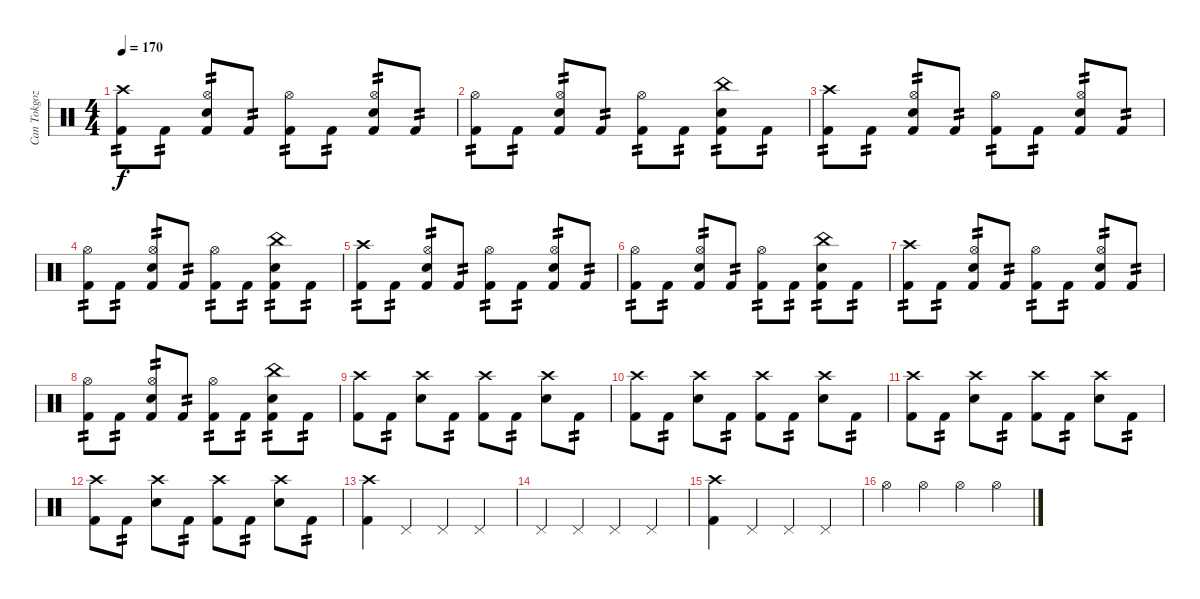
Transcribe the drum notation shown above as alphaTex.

\track ("Can Tokgoz" "Can Tokgoz") {instrument percussion}
\staff {score}
\articulation defaults
\ts (4 4)
\tempo 170
\clef neutral
\ks c
("Crash high (hit)" "Kick (hit) 2").8{tp 2 dy f} "Kick (hit) 2".8{tp 2} ("Hi-Hat (open)" "Snare (hit) 2" "Kick (hit) 2").8{tp 2} "Kick (hit) 2".8{tp 2} ("Hi-Hat (open)" "Kick (hit) 2").8{tp 2} "Kick (hit) 2".8{tp 2} ("Hi-Hat (open)" "Snare (hit) 2" "Kick (hit) 2").8{tp 2} "Kick (hit) 2".8{tp 2} |
("Hi-Hat (open)" "Kick (hit) 2").8{tp 2} "Kick (hit) 2".8{tp 2} ("Hi-Hat (open)" "Snare (hit) 2" "Kick (hit) 2").8{tp 2} "Kick (hit) 2".8{tp 2} ("Hi-Hat (open)" "Kick (hit) 2").8{tp 2} "Kick (hit) 2".8{tp 2} ("China (hit)" "Snare (hit) 2" "Kick (hit) 2").8{tp 2} "Kick (hit) 2".8{tp 2} |
("Crash high (hit)" "Kick (hit) 2").8{tp 2} "Kick (hit) 2".8{tp 2} ("Hi-Hat (open)" "Snare (hit) 2" "Kick (hit) 2").8{tp 2} "Kick (hit) 2".8{tp 2} ("Hi-Hat (open)" "Kick (hit) 2").8{tp 2} "Kick (hit) 2".8{tp 2} ("Hi-Hat (open)" "Snare (hit) 2" "Kick (hit) 2").8{tp 2} "Kick (hit) 2".8{tp 2} |
("Hi-Hat (open)" "Kick (hit) 2").8{tp 2} "Kick (hit) 2".8{tp 2} ("Hi-Hat (open)" "Snare (hit) 2" "Kick (hit) 2").8{tp 2} "Kick (hit) 2".8{tp 2} ("Hi-Hat (open)" "Kick (hit) 2").8{tp 2} "Kick (hit) 2".8{tp 2} ("China (hit)" "Snare (hit) 2" "Kick (hit) 2").8{tp 2} "Kick (hit) 2".8{tp 2} |
("Crash high (hit)" "Kick (hit) 2").8{tp 2} "Kick (hit) 2".8{tp 2} ("Hi-Hat (open)" "Snare (hit) 2" "Kick (hit) 2").8{tp 2} "Kick (hit) 2".8{tp 2} ("Hi-Hat (open)" "Kick (hit) 2").8{tp 2} "Kick (hit) 2".8{tp 2} ("Hi-Hat (open)" "Snare (hit) 2" "Kick (hit) 2").8{tp 2} "Kick (hit) 2".8{tp 2} |
("Hi-Hat (open)" "Kick (hit) 2").8{tp 2} "Kick (hit) 2".8{tp 2} ("Hi-Hat (open)" "Snare (hit) 2" "Kick (hit) 2").8{tp 2} "Kick (hit) 2".8{tp 2} ("Hi-Hat (open)" "Kick (hit) 2").8{tp 2} "Kick (hit) 2".8{tp 2} ("China (hit)" "Snare (hit) 2" "Kick (hit) 2").8{tp 2} "Kick (hit) 2".8{tp 2} |
("Crash high (hit)" "Kick (hit) 2").8{tp 2} "Kick (hit) 2".8{tp 2} ("Hi-Hat (open)" "Snare (hit) 2" "Kick (hit) 2").8{tp 2} "Kick (hit) 2".8{tp 2} ("Hi-Hat (open)" "Kick (hit) 2").8{tp 2} "Kick (hit) 2".8{tp 2} ("Hi-Hat (open)" "Snare (hit) 2" "Kick (hit) 2").8{tp 2} "Kick (hit) 2".8{tp 2} |
("Hi-Hat (open)" "Kick (hit) 2").8{tp 2} "Kick (hit) 2".8{tp 2} ("Hi-Hat (open)" "Snare (hit) 2" "Kick (hit) 2").8{tp 2} "Kick (hit) 2".8{tp 2} ("Hi-Hat (open)" "Kick (hit) 2").8{tp 2} "Kick (hit) 2".8{tp 2} ("China (hit)" "Snare (hit) 2" "Kick (hit) 2").8{tp 2} "Kick (hit) 2".8{tp 2} |
("Crash high (hit)" "Kick (hit) 2").8 "Kick (hit) 2".8{tp 2} ("Crash high (hit)" "Snare (hit) 2").8 "Kick (hit) 2".8{tp 2} ("Crash high (hit)" "Kick (hit) 2").8 "Kick (hit) 2".8{tp 2} ("Crash high (hit)" "Snare (hit) 2").8 "Kick (hit) 2".8{tp 2} |
("Crash high (hit)" "Kick (hit) 2").8 "Kick (hit) 2".8{tp 2} ("Crash high (hit)" "Snare (hit) 2").8 "Kick (hit) 2".8{tp 2} ("Crash high (hit)" "Kick (hit) 2").8 "Kick (hit) 2".8{tp 2} ("Crash high (hit)" "Snare (hit) 2").8 "Kick (hit) 2".8{tp 2} |
("Crash high (hit)" "Kick (hit) 2").8 "Kick (hit) 2".8{tp 2} ("Crash high (hit)" "Snare (hit) 2").8 "Kick (hit) 2".8{tp 2} ("Crash high (hit)" "Kick (hit) 2").8 "Kick (hit) 2".8{tp 2} ("Crash high (hit)" "Snare (hit) 2").8 "Kick (hit) 2".8{tp 2} |
("Crash high (hit)" "Kick (hit) 2").8 "Kick (hit) 2".8{tp 2} ("Crash high (hit)" "Snare (hit) 2").8 "Kick (hit) 2".8{tp 2} ("Crash high (hit)" "Kick (hit) 2").8 "Kick (hit) 2".8{tp 2} ("Crash high (hit)" "Snare (hit) 2").8 "Kick (hit) 2".8{tp 2} |
("Crash high (hit)" "Kick (hit) 2").4 "Pedal Hi-Hat (hit)".4 "Pedal Hi-Hat (hit)".4 "Pedal Hi-Hat (hit)".4 |
"Pedal Hi-Hat (hit)".4 "Pedal Hi-Hat (hit)".4 "Pedal Hi-Hat (hit)".4 "Pedal Hi-Hat (hit)".4 |
("Crash high (hit)" "Kick (hit) 2").4 "Pedal Hi-Hat (hit)".4 "Pedal Hi-Hat (hit)".4 "Pedal Hi-Hat (hit)".4 |
"Hi-Hat (open)".4 "Hi-Hat (open)".4 "Hi-Hat (open)".4 "Hi-Hat (open)".4
